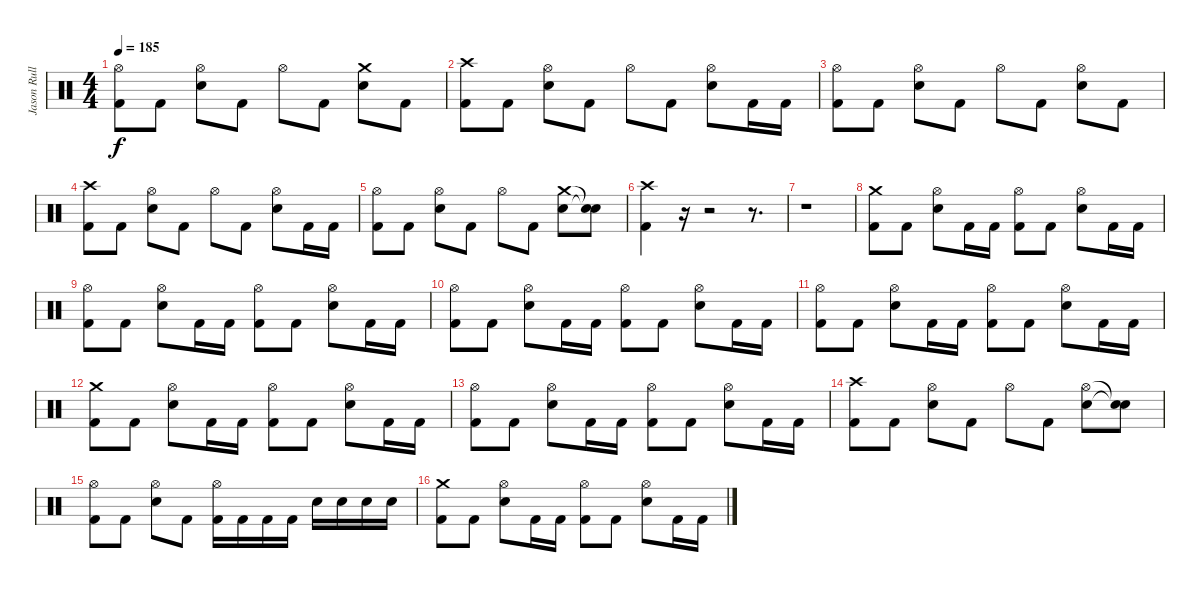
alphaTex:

\track ("Jason Rullo" "Jason Rull") {instrument percussion}
\staff {score}
\articulation defaults
\ts (4 4)
\tempo 185
\clef neutral
\ks c
("Hi-Hat (open)" "Kick (hit) 2").8{dy f} "Kick (hit) 2".8 ("Hi-Hat (open)" "Snare (hit) 2").8 "Kick (hit) 2".8 "Hi-Hat (open)".8 "Kick (hit) 2".8 ("Crash medium (hit)" "Snare (hit) 2").8 "Kick (hit) 2".8 |
("Crash high (hit)" "Kick (hit) 2").8 "Kick (hit) 2".8 ("Hi-Hat (open)" "Snare (hit) 2").8 "Kick (hit) 2".8 "Hi-Hat (open)".8 "Kick (hit) 2".8 ("Hi-Hat (open)" "Snare (hit) 2").8 "Kick (hit) 2".16 "Kick (hit) 2".16 |
("Hi-Hat (open)" "Kick (hit) 2").8 "Kick (hit) 2".8 ("Hi-Hat (open)" "Snare (hit) 2").8 "Kick (hit) 2".8 "Hi-Hat (open)".8 "Kick (hit) 2".8 ("Hi-Hat (open)" "Snare (hit) 2").8 "Kick (hit) 2".8 |
("Crash high (hit)" "Kick (hit) 2").8 "Kick (hit) 2".8 ("Hi-Hat (open)" "Snare (hit) 2").8 "Kick (hit) 2".8 "Hi-Hat (open)".8 "Kick (hit) 2".8 ("Hi-Hat (open)" "Snare (hit) 2").8 "Kick (hit) 2".16 "Kick (hit) 2".16 |
("Hi-Hat (open)" "Kick (hit) 2").8 "Kick (hit) 2".8 ("Hi-Hat (open)" "Snare (hit) 2").8 "Kick (hit) 2".8 "Hi-Hat (open)".8 "Kick (hit) 2".8 ("Crash medium (hit)" "Snare (hit) 2").8 ("Snare (hit)"{t} "Snare (hit)"{t}).8 |
("Crash high (hit)" "Kick (hit) 2").4 r.16 r.2 r.8{d} |
r.1 |
("Crash medium (hit)" "Kick (hit) 2").8 "Kick (hit) 2".8 ("Hi-Hat (open)" "Snare (hit) 2").8 "Kick (hit) 2".16 "Kick (hit) 2".16 ("Hi-Hat (open)" "Kick (hit) 2").8 "Kick (hit) 2".8 ("Hi-Hat (open)" "Snare (hit) 2").8 "Kick (hit) 2".16 "Kick (hit) 2".16 |
("Hi-Hat (open)" "Kick (hit) 2").8 "Kick (hit) 2".8 ("Hi-Hat (open)" "Snare (hit) 2").8 "Kick (hit) 2".16 "Kick (hit) 2".16 ("Hi-Hat (open)" "Kick (hit) 2").8 "Kick (hit) 2".8 ("Hi-Hat (open)" "Snare (hit) 2").8 "Kick (hit) 2".16 "Kick (hit) 2".16 |
("Hi-Hat (open)" "Kick (hit) 2").8 "Kick (hit) 2".8 ("Hi-Hat (open)" "Snare (hit) 2").8 "Kick (hit) 2".16 "Kick (hit) 2".16 ("Hi-Hat (open)" "Kick (hit) 2").8 "Kick (hit) 2".8 ("Hi-Hat (open)" "Snare (hit) 2").8 "Kick (hit) 2".16 "Kick (hit) 2".16 |
("Hi-Hat (open)" "Kick (hit) 2").8 "Kick (hit) 2".8 ("Hi-Hat (open)" "Snare (hit) 2").8 "Kick (hit) 2".16 "Kick (hit) 2".16 ("Hi-Hat (open)" "Kick (hit) 2").8 "Kick (hit) 2".8 ("Hi-Hat (open)" "Snare (hit) 2").8 "Kick (hit) 2".16 "Kick (hit) 2".16 |
("Crash medium (hit)" "Kick (hit) 2").8 "Kick (hit) 2".8 ("Hi-Hat (open)" "Snare (hit) 2").8 "Kick (hit) 2".16 "Kick (hit) 2".16 ("Hi-Hat (open)" "Kick (hit) 2").8 "Kick (hit) 2".8 ("Hi-Hat (open)" "Snare (hit) 2").8 "Kick (hit) 2".16 "Kick (hit) 2".16 |
("Hi-Hat (open)" "Kick (hit) 2").8 "Kick (hit) 2".8 ("Hi-Hat (open)" "Snare (hit) 2").8 "Kick (hit) 2".16 "Kick (hit) 2".16 ("Hi-Hat (open)" "Kick (hit) 2").8 "Kick (hit) 2".8 ("Hi-Hat (open)" "Snare (hit) 2").8 "Kick (hit) 2".16 "Kick (hit) 2".16 |
("Crash high (hit)" "Kick (hit) 2").8 "Kick (hit) 2".8 ("Hi-Hat (open)" "Snare (hit) 2").8 "Kick (hit) 2".8 "Hi-Hat (open)".8 "Kick (hit) 2".8 ("Hi-Hat (open)" "Snare (hit) 2").8 ("Snare (hit)"{t} "Snare (hit)"{t}).8 |
("Hi-Hat (open)" "Kick (hit) 2").8 "Kick (hit) 2".8 ("Hi-Hat (open)" "Snare (hit) 2").8 "Kick (hit) 2".8 ("Hi-Hat (open)" "Kick (hit) 2").16 "Kick (hit) 2".16 "Kick (hit) 2".16 "Kick (hit) 2".16 "Snare (hit) 2".16 "Snare (hit) 2".16 "Snare (hit) 2".16 "Snare (hit) 2".16 |
("Crash medium (hit)" "Kick (hit) 2").8 "Kick (hit) 2".8 ("Hi-Hat (open)" "Snare (hit) 2").8 "Kick (hit) 2".16 "Kick (hit) 2".16 ("Hi-Hat (open)" "Kick (hit) 2").8 "Kick (hit) 2".8 ("Hi-Hat (open)" "Snare (hit) 2").8 "Kick (hit) 2".16 "Kick (hit) 2".16
